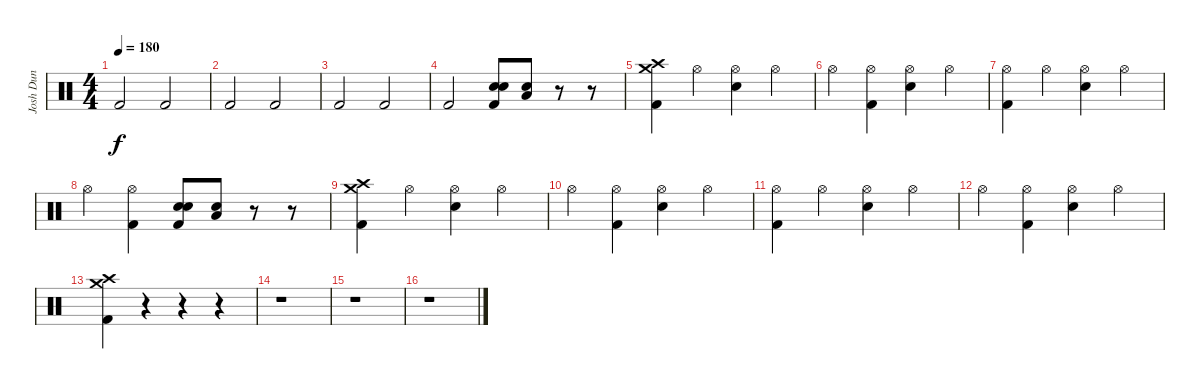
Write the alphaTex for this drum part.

\track ("Josh Dun" "Josh Dun") {instrument percussion}
\staff {score}
\articulation defaults
\ts (4 4)
\tempo 180
\clef neutral
\ks c "Kick (hit) 2".2{dy f} "Kick (hit) 2".2
|
"Kick (hit) 2".2 "Kick (hit) 2".2 |
"Kick (hit) 2".2 "Kick (hit) 2".2 |
"Kick (hit) 2".2 ("Electric Snare (hit)" "Snare (hit) 2" "Kick (hit) 2").8 ("Low Floor Tom (hit)" "Snare (hit) 2").8 r.8 r.8 |
("Crash high (hit)" "Crash medium (hit)" "Kick (hit) 2").4 "Hi-Hat (open)".4 ("Hi-Hat (open)" "Snare (hit) 2").4 "Hi-Hat (open)".4 |
"Hi-Hat (open)".4 ("Hi-Hat (open)" "Kick (hit) 2").4 ("Hi-Hat (open)" "Snare (hit) 2").4 "Hi-Hat (open)".4 |
("Hi-Hat (open)" "Kick (hit) 2").4 "Hi-Hat (open)".4 ("Hi-Hat (open)" "Snare (hit) 2").4 "Hi-Hat (open)".4 |
"Hi-Hat (open)".4 ("Hi-Hat (open)" "Kick (hit) 2").4 ("Electric Snare (hit)" "Snare (hit) 2" "Kick (hit) 2").8 ("Low Floor Tom (hit)" "Snare (hit) 2").8 r.8 r.8 |
("Crash high (hit)" "Crash medium (hit)" "Kick (hit) 2").4 "Hi-Hat (open)".4 ("Hi-Hat (open)" "Snare (hit) 2").4 "Hi-Hat (open)".4 |
"Hi-Hat (open)".4 ("Hi-Hat (open)" "Kick (hit) 2").4 ("Hi-Hat (open)" "Snare (hit) 2").4 "Hi-Hat (open)".4 |
("Hi-Hat (open)" "Kick (hit) 2").4 "Hi-Hat (open)".4 ("Hi-Hat (open)" "Snare (hit) 2").4 "Hi-Hat (open)".4 |
"Hi-Hat (open)".4 ("Hi-Hat (open)" "Kick (hit) 2").4 ("Hi-Hat (open)" "Snare (hit) 2").4 "Hi-Hat (open)".4 |
("Crash high (hit)" "Crash medium (hit)" "Kick (hit) 2").4 r.4 r.4 r.4 |
r.1 |
r.1 |
r.1
